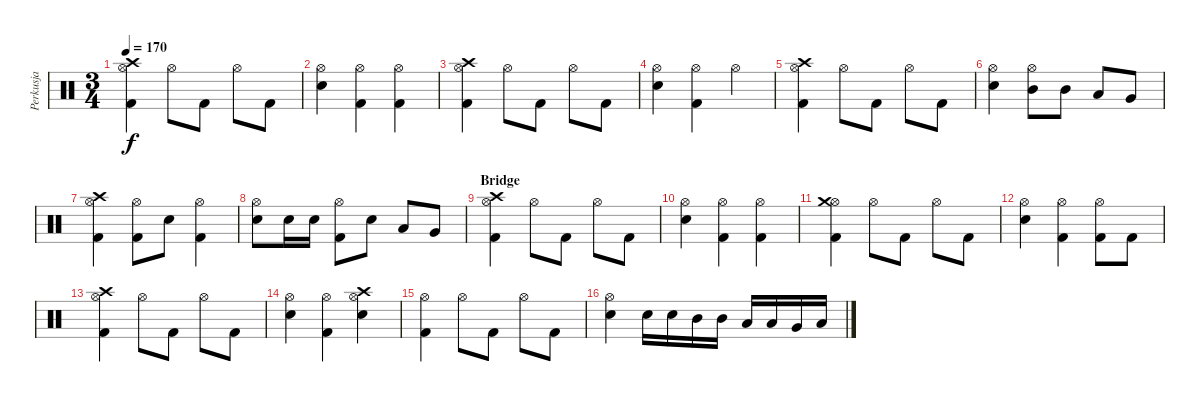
\track ("Perkusja" "Perkusja") {instrument percussion}
\staff {score}
\articulation defaults
\ts (3 4)
\tempo 170
\clef neutral
\ks c
("Hi-Hat (open)" "Kick (hit) 2" "Crash high (hit)").4{dy f} "Hi-Hat (open)".8 "Kick (hit) 2".8 "Hi-Hat (open)".8 "Kick (hit) 2".8 |
("Hi-Hat (open)" "Snare (hit) 2").4 ("Hi-Hat (open)" "Kick (hit) 2").4 ("Hi-Hat (open)" "Kick (hit) 2").4 |
("Hi-Hat (open)" "Kick (hit) 2" "Crash high (hit)").4 "Hi-Hat (open)".8 "Kick (hit) 2".8 "Hi-Hat (open)".8 "Kick (hit) 2".8 |
("Hi-Hat (open)" "Snare (hit) 2").4 ("Hi-Hat (open)" "Kick (hit) 2").4 "Hi-Hat (open)".4 |
("Hi-Hat (open)" "Kick (hit) 2" "Crash high (hit)").4 "Hi-Hat (open)".8 "Kick (hit) 2".8 "Hi-Hat (open)".8 "Kick (hit) 2".8 |
("Hi-Hat (open)" "Snare (hit) 2").4 ("Hi-Hat (open)" "Mid Tom (hit)").8 "Mid Tom (hit)".8 "Low Tom (hit)".8 "Very Low Tom (hit)".8 |
("Hi-Hat (open)" "Kick (hit) 2" "Crash high (hit)").4 ("Hi-Hat (open)" "Kick (hit) 2").8 "Snare (hit) 2".8 ("Hi-Hat (open)" "Kick (hit) 2").4 |
("Hi-Hat (open)" "Snare (hit) 2").8 "Snare (hit) 2".16 "Snare (hit) 2".16 ("Hi-Hat (open)" "Kick (hit) 2").8 "Snare (hit) 2".8 "Low Tom (hit)".8 "Very Low Tom (hit)".8 |
\section ("" "Bridge")
("Hi-Hat (open)" "Kick (hit) 2" "Crash high (hit)").4 "Hi-Hat (open)".8 "Kick (hit) 2".8 "Hi-Hat (open)".8 "Kick (hit) 2".8 |
("Hi-Hat (open)" "Snare (hit) 2").4 ("Hi-Hat (open)" "Kick (hit) 2").4 ("Hi-Hat (open)" "Kick (hit) 2").4 |
("Hi-Hat (open)" "Kick (hit) 2" "Crash medium (hit)").4 "Hi-Hat (open)".8 "Kick (hit) 2".8 "Hi-Hat (open)".8 "Kick (hit) 2".8 |
("Hi-Hat (open)" "Snare (hit) 2").4 ("Hi-Hat (open)" "Kick (hit) 2").4 ("Hi-Hat (open)" "Kick (hit) 2").8 "Kick (hit) 2".8 |
("Hi-Hat (open)" "Kick (hit) 2" "Crash high (hit)").4 "Hi-Hat (open)".8 "Kick (hit) 2".8 "Hi-Hat (open)".8 "Kick (hit) 2".8 |
("Hi-Hat (open)" "Snare (hit) 2").4 ("Hi-Hat (open)" "Kick (hit) 2").4 ("Hi-Hat (open)" "Snare (hit) 2" "Crash high (hit)").4 |
("Hi-Hat (open)" "Kick (hit) 2").4 "Hi-Hat (open)".8 "Kick (hit) 2".8 "Hi-Hat (open)".8 "Kick (hit) 2".8 |
("Hi-Hat (open)" "Snare (hit) 2").4 "Snare (hit) 2".16 "Snare (hit) 2".16 "Mid Tom (hit)".16 "Mid Tom (hit)".16 "Low Tom (hit)".16 "Low Tom (hit)".16 "Very Low Tom (hit)".16 "Low Floor Tom (hit)".16
